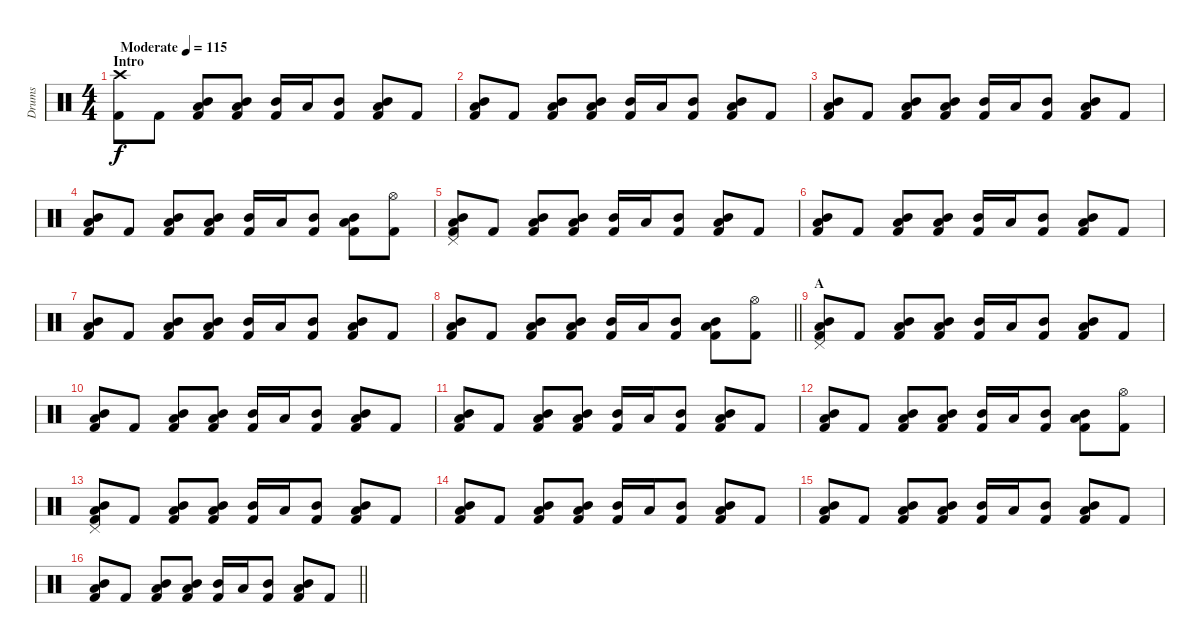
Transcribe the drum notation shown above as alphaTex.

\track ("Drums" "Drums") {instrument percussion}
\staff {score}
\articulation defaults
\ts (4 4)
\section ("" "Intro")
\tempo (115 "Moderate")
\clef neutral
\ks c
("Crash high (hit)" "Kick (hit) 2").8{dy f} "Kick (hit) 2".8 ("Mid Tom (hit)" "Low Tom (hit)" "Kick (hit) 2").8 ("Mid Tom (hit)" "Low Tom (hit)" "Kick (hit) 2").8 ("Mid Tom (hit)" "Kick (hit) 2").16 "Low Tom (hit)".16 ("Mid Tom (hit)" "Kick (hit) 2").8 ("Mid Tom (hit)" "Low Tom (hit)" "Kick (hit) 2").8 "Kick (hit) 2".8 |
("Mid Tom (hit)" "Low Tom (hit)" "Kick (hit) 2").8 "Kick (hit) 2".8 ("Mid Tom (hit)" "Low Tom (hit)" "Kick (hit) 2").8 ("Mid Tom (hit)" "Low Tom (hit)" "Kick (hit) 2").8 ("Mid Tom (hit)" "Kick (hit) 2").16 "Low Tom (hit)".16 ("Mid Tom (hit)" "Kick (hit) 2").8 ("Mid Tom (hit)" "Low Tom (hit)" "Kick (hit) 2").8 "Kick (hit) 2".8 |
("Mid Tom (hit)" "Low Tom (hit)" "Kick (hit) 2").8 "Kick (hit) 2".8 ("Mid Tom (hit)" "Low Tom (hit)" "Kick (hit) 2").8 ("Mid Tom (hit)" "Low Tom (hit)" "Kick (hit) 2").8 ("Mid Tom (hit)" "Kick (hit) 2").16 "Low Tom (hit)".16 ("Mid Tom (hit)" "Kick (hit) 2").8 ("Mid Tom (hit)" "Low Tom (hit)" "Kick (hit) 2").8 "Kick (hit) 2".8 |
("Mid Tom (hit)" "Low Tom (hit)" "Kick (hit) 2").8 "Kick (hit) 2".8 ("Mid Tom (hit)" "Low Tom (hit)" "Kick (hit) 2").8 ("Mid Tom (hit)" "Low Tom (hit)" "Kick (hit) 2").8 ("Mid Tom (hit)" "Kick (hit) 2").16 "Low Tom (hit)".16 ("Mid Tom (hit)" "Kick (hit) 2").8 ("Mid Tom (hit)" "Low Tom (hit)" "Kick (hit) 2").8 ("Hi-Hat (open)" "Kick (hit) 2").8 |
("Mid Tom (hit)" "Low Tom (hit)" "Pedal Hi-Hat (hit)" "Kick (hit) 2").8 "Kick (hit) 2".8 ("Mid Tom (hit)" "Low Tom (hit)" "Kick (hit) 2").8 ("Mid Tom (hit)" "Low Tom (hit)" "Kick (hit) 2").8 ("Mid Tom (hit)" "Kick (hit) 2").16 "Low Tom (hit)".16 ("Mid Tom (hit)" "Kick (hit) 2").8 ("Mid Tom (hit)" "Low Tom (hit)" "Kick (hit) 2").8 "Kick (hit) 2".8 |
("Mid Tom (hit)" "Low Tom (hit)" "Kick (hit) 2").8 "Kick (hit) 2".8 ("Mid Tom (hit)" "Low Tom (hit)" "Kick (hit) 2").8 ("Mid Tom (hit)" "Low Tom (hit)" "Kick (hit) 2").8 ("Mid Tom (hit)" "Kick (hit) 2").16 "Low Tom (hit)".16 ("Mid Tom (hit)" "Kick (hit) 2").8 ("Mid Tom (hit)" "Low Tom (hit)" "Kick (hit) 2").8 "Kick (hit) 2".8 |
("Mid Tom (hit)" "Low Tom (hit)" "Kick (hit) 2").8 "Kick (hit) 2".8 ("Mid Tom (hit)" "Low Tom (hit)" "Kick (hit) 2").8 ("Mid Tom (hit)" "Low Tom (hit)" "Kick (hit) 2").8 ("Mid Tom (hit)" "Kick (hit) 2").16 "Low Tom (hit)".16 ("Mid Tom (hit)" "Kick (hit) 2").8 ("Mid Tom (hit)" "Low Tom (hit)" "Kick (hit) 2").8 "Kick (hit) 2".8 |
\barLineRight lightlight
("Mid Tom (hit)" "Low Tom (hit)" "Kick (hit) 2").8 "Kick (hit) 2".8 ("Mid Tom (hit)" "Low Tom (hit)" "Kick (hit) 2").8 ("Mid Tom (hit)" "Low Tom (hit)" "Kick (hit) 2").8 ("Mid Tom (hit)" "Kick (hit) 2").16 "Low Tom (hit)".16 ("Mid Tom (hit)" "Kick (hit) 2").8 ("Mid Tom (hit)" "Low Tom (hit)" "Kick (hit) 2").8 ("Hi-Hat (open)" "Kick (hit) 2").8 |
\section ("" "A")
("Mid Tom (hit)" "Low Tom (hit)" "Pedal Hi-Hat (hit)" "Kick (hit) 2").8 "Kick (hit) 2".8 ("Mid Tom (hit)" "Low Tom (hit)" "Kick (hit) 2").8 ("Mid Tom (hit)" "Low Tom (hit)" "Kick (hit) 2").8 ("Mid Tom (hit)" "Kick (hit) 2").16 "Low Tom (hit)".16 ("Mid Tom (hit)" "Kick (hit) 2").8 ("Mid Tom (hit)" "Low Tom (hit)" "Kick (hit) 2").8 "Kick (hit) 2".8 |
("Mid Tom (hit)" "Low Tom (hit)" "Kick (hit) 2").8 "Kick (hit) 2".8 ("Mid Tom (hit)" "Low Tom (hit)" "Kick (hit) 2").8 ("Mid Tom (hit)" "Low Tom (hit)" "Kick (hit) 2").8 ("Mid Tom (hit)" "Kick (hit) 2").16 "Low Tom (hit)".16 ("Mid Tom (hit)" "Kick (hit) 2").8 ("Mid Tom (hit)" "Low Tom (hit)" "Kick (hit) 2").8 "Kick (hit) 2".8 |
("Mid Tom (hit)" "Low Tom (hit)" "Kick (hit) 2").8 "Kick (hit) 2".8 ("Mid Tom (hit)" "Low Tom (hit)" "Kick (hit) 2").8 ("Mid Tom (hit)" "Low Tom (hit)" "Kick (hit) 2").8 ("Mid Tom (hit)" "Kick (hit) 2").16 "Low Tom (hit)".16 ("Mid Tom (hit)" "Kick (hit) 2").8 ("Mid Tom (hit)" "Low Tom (hit)" "Kick (hit) 2").8 "Kick (hit) 2".8 |
("Mid Tom (hit)" "Low Tom (hit)" "Kick (hit) 2").8 "Kick (hit) 2".8 ("Mid Tom (hit)" "Low Tom (hit)" "Kick (hit) 2").8 ("Mid Tom (hit)" "Low Tom (hit)" "Kick (hit) 2").8 ("Mid Tom (hit)" "Kick (hit) 2").16 "Low Tom (hit)".16 ("Mid Tom (hit)" "Kick (hit) 2").8 ("Mid Tom (hit)" "Low Tom (hit)" "Kick (hit) 2").8 ("Hi-Hat (open)" "Kick (hit) 2").8 |
("Mid Tom (hit)" "Low Tom (hit)" "Pedal Hi-Hat (hit)" "Kick (hit) 2").8 "Kick (hit) 2".8 ("Mid Tom (hit)" "Low Tom (hit)" "Kick (hit) 2").8 ("Mid Tom (hit)" "Low Tom (hit)" "Kick (hit) 2").8 ("Mid Tom (hit)" "Kick (hit) 2").16 "Low Tom (hit)".16 ("Mid Tom (hit)" "Kick (hit) 2").8 ("Mid Tom (hit)" "Low Tom (hit)" "Kick (hit) 2").8 "Kick (hit) 2".8 |
("Mid Tom (hit)" "Low Tom (hit)" "Kick (hit) 2").8 "Kick (hit) 2".8 ("Mid Tom (hit)" "Low Tom (hit)" "Kick (hit) 2").8 ("Mid Tom (hit)" "Low Tom (hit)" "Kick (hit) 2").8 ("Mid Tom (hit)" "Kick (hit) 2").16 "Low Tom (hit)".16 ("Mid Tom (hit)" "Kick (hit) 2").8 ("Mid Tom (hit)" "Low Tom (hit)" "Kick (hit) 2").8 "Kick (hit) 2".8 |
("Mid Tom (hit)" "Low Tom (hit)" "Kick (hit) 2").8 "Kick (hit) 2".8 ("Mid Tom (hit)" "Low Tom (hit)" "Kick (hit) 2").8 ("Mid Tom (hit)" "Low Tom (hit)" "Kick (hit) 2").8 ("Mid Tom (hit)" "Kick (hit) 2").16 "Low Tom (hit)".16 ("Mid Tom (hit)" "Kick (hit) 2").8 ("Mid Tom (hit)" "Low Tom (hit)" "Kick (hit) 2").8 "Kick (hit) 2".8 |
\barLineRight lightlight
("Mid Tom (hit)" "Low Tom (hit)" "Kick (hit) 2").8 "Kick (hit) 2".8 ("Mid Tom (hit)" "Low Tom (hit)" "Kick (hit) 2").8 ("Mid Tom (hit)" "Low Tom (hit)" "Kick (hit) 2").8 ("Mid Tom (hit)" "Kick (hit) 2").16 "Low Tom (hit)".16 ("Mid Tom (hit)" "Kick (hit) 2").8 ("Mid Tom (hit)" "Low Tom (hit)" "Kick (hit) 2").8 "Kick (hit) 2".8
